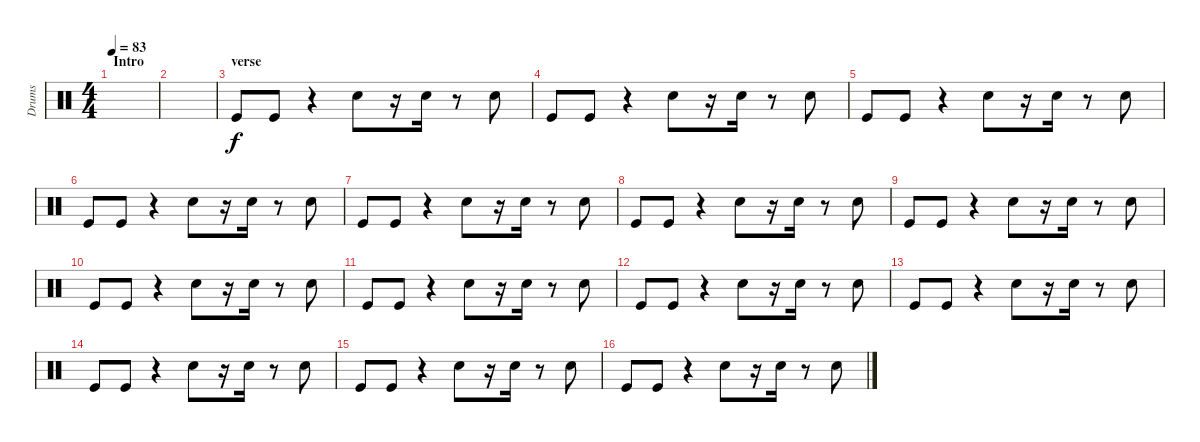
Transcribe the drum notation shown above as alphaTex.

\track ("Drums" "Drums") {instrument percussion}
\staff {score}
\articulation defaults
\ts (4 4)
\section ("" "Intro")
\tempo 83
\clef neutral
\ks c
|
|
\section ("" "verse")
"Kick (hit)".8 "Kick (hit)".8 r.4 "Snare (hit) 2".8 r.16 "Electric Snare (hit)".16 r.8 "Electric Snare (hit)".8 |
"Kick (hit)".8 "Kick (hit)".8 r.4 "Snare (hit) 2".8 r.16 "Electric Snare (hit)".16 r.8 "Electric Snare (hit)".8 |
"Kick (hit)".8 "Kick (hit)".8 r.4 "Snare (hit) 2".8 r.16 "Electric Snare (hit)".16 r.8 "Electric Snare (hit)".8 |
"Kick (hit)".8 "Kick (hit)".8 r.4 "Snare (hit) 2".8 r.16 "Electric Snare (hit)".16 r.8 "Electric Snare (hit)".8 |
"Kick (hit)".8 "Kick (hit)".8 r.4 "Snare (hit) 2".8 r.16 "Electric Snare (hit)".16 r.8 "Electric Snare (hit)".8 |
"Kick (hit)".8 "Kick (hit)".8 r.4 "Snare (hit) 2".8 r.16 "Electric Snare (hit)".16 r.8 "Electric Snare (hit)".8 |
"Kick (hit)".8 "Kick (hit)".8 r.4 "Snare (hit) 2".8 r.16 "Electric Snare (hit)".16 r.8 "Electric Snare (hit)".8 |
"Kick (hit)".8 "Kick (hit)".8 r.4 "Snare (hit) 2".8 r.16 "Electric Snare (hit)".16 r.8 "Electric Snare (hit)".8 |
"Kick (hit)".8 "Kick (hit)".8 r.4 "Snare (hit) 2".8 r.16 "Electric Snare (hit)".16 r.8 "Electric Snare (hit)".8 |
"Kick (hit)".8 "Kick (hit)".8 r.4 "Snare (hit) 2".8 r.16 "Electric Snare (hit)".16 r.8 "Electric Snare (hit)".8 |
"Kick (hit)".8 "Kick (hit)".8 r.4 "Snare (hit) 2".8 r.16 "Electric Snare (hit)".16 r.8 "Electric Snare (hit)".8 |
"Kick (hit)".8 "Kick (hit)".8 r.4 "Snare (hit) 2".8 r.16 "Electric Snare (hit)".16 r.8 "Electric Snare (hit)".8 |
"Kick (hit)".8 "Kick (hit)".8 r.4 "Snare (hit) 2".8 r.16 "Electric Snare (hit)".16 r.8 "Electric Snare (hit)".8 |
"Kick (hit)".8 "Kick (hit)".8 r.4 "Snare (hit) 2".8 r.16 "Electric Snare (hit)".16 r.8 "Electric Snare (hit)".8
